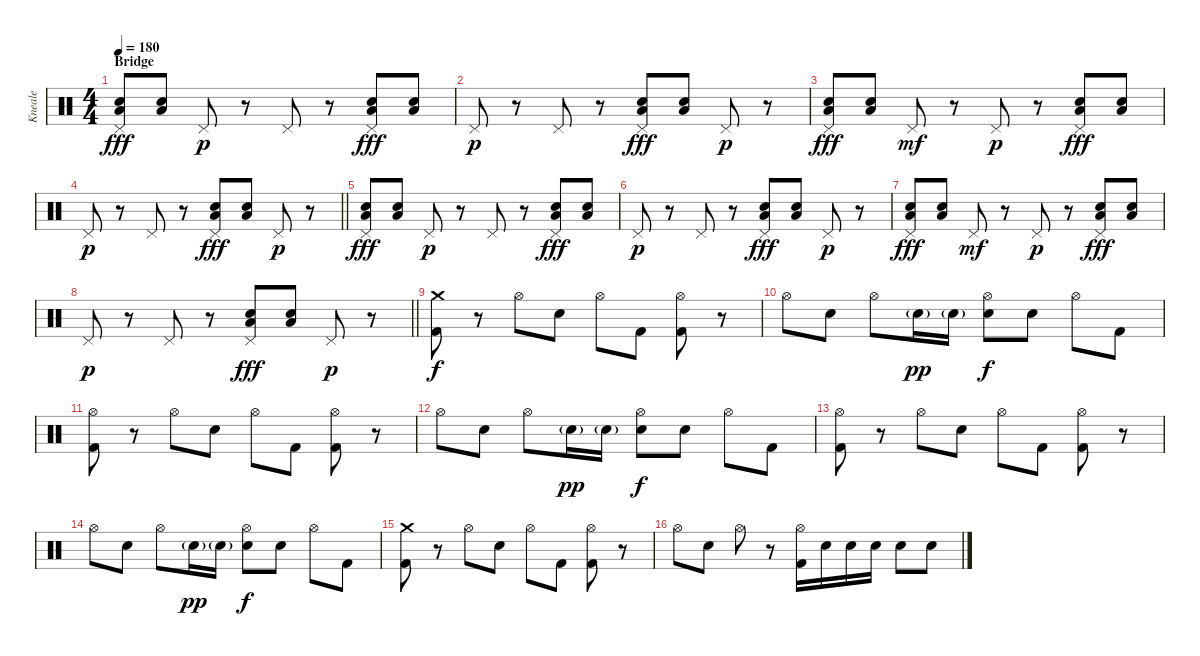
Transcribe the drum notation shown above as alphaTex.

\track ("Kneale" "Kneale") {instrument percussion}
\staff {score}
\articulation defaults
\ts (4 4)
\section ("" "Bridge")
\tempo 180
\clef neutral
\ks c
("Pedal Hi-Hat (hit)" "Low Floor Tom (hit)" "Electric Snare (hit)").8{dy fff} ("Low Floor Tom (hit)" "Electric Snare (hit)").8 "Pedal Hi-Hat (hit)".8{dy p} r.8 "Pedal Hi-Hat (hit)".8 r.8 ("Pedal Hi-Hat (hit)" "Low Floor Tom (hit)" "Electric Snare (hit)").8{dy fff} ("Low Floor Tom (hit)" "Electric Snare (hit)").8 |
"Pedal Hi-Hat (hit)".8{dy p} r.8 "Pedal Hi-Hat (hit)".8 r.8 ("Pedal Hi-Hat (hit)" "Low Floor Tom (hit)" "Electric Snare (hit)").8{dy fff} ("Low Floor Tom (hit)" "Electric Snare (hit)").8 "Pedal Hi-Hat (hit)".8{dy p} r.8 |
("Pedal Hi-Hat (hit)" "Low Floor Tom (hit)" "Electric Snare (hit)").8{dy fff} ("Low Floor Tom (hit)" "Electric Snare (hit)").8 "Pedal Hi-Hat (hit)".8{dy mf} r.8 "Pedal Hi-Hat (hit)".8{dy p} r.8 ("Pedal Hi-Hat (hit)" "Low Floor Tom (hit)" "Electric Snare (hit)").8{dy fff} ("Low Floor Tom (hit)" "Electric Snare (hit)").8 |
\barLineRight lightlight "Pedal Hi-Hat (hit)".8{dy p}
r.8 "Pedal Hi-Hat (hit)".8 r.8 ("Pedal Hi-Hat (hit)" "Low Floor Tom (hit)" "Electric Snare (hit)").8{dy fff} ("Low Floor Tom (hit)" "Electric Snare (hit)").8 "Pedal Hi-Hat (hit)".8{dy p} r.8 |
("Pedal Hi-Hat (hit)" "Low Floor Tom (hit)" "Electric Snare (hit)").8{dy fff} ("Low Floor Tom (hit)" "Electric Snare (hit)").8 "Pedal Hi-Hat (hit)".8{dy p} r.8 "Pedal Hi-Hat (hit)".8 r.8 ("Pedal Hi-Hat (hit)" "Low Floor Tom (hit)" "Electric Snare (hit)").8{dy fff} ("Low Floor Tom (hit)" "Electric Snare (hit)").8 |
"Pedal Hi-Hat (hit)".8{dy p} r.8 "Pedal Hi-Hat (hit)".8 r.8 ("Pedal Hi-Hat (hit)" "Low Floor Tom (hit)" "Electric Snare (hit)").8{dy fff} ("Low Floor Tom (hit)" "Electric Snare (hit)").8 "Pedal Hi-Hat (hit)".8{dy p} r.8 |
("Pedal Hi-Hat (hit)" "Low Floor Tom (hit)" "Electric Snare (hit)").8{dy fff} ("Low Floor Tom (hit)" "Electric Snare (hit)").8 "Pedal Hi-Hat (hit)".8{dy mf} r.8 "Pedal Hi-Hat (hit)".8{dy p} r.8 ("Pedal Hi-Hat (hit)" "Low Floor Tom (hit)" "Electric Snare (hit)").8{dy fff} ("Low Floor Tom (hit)" "Electric Snare (hit)").8 |
\barLineRight lightlight "Pedal Hi-Hat (hit)".8{dy p}
r.8 "Pedal Hi-Hat (hit)".8 r.8 ("Pedal Hi-Hat (hit)" "Low Floor Tom (hit)" "Electric Snare (hit)").8{dy fff} ("Low Floor Tom (hit)" "Electric Snare (hit)").8 "Pedal Hi-Hat (hit)".8{dy p} r.8 |
\section ("" "")
("Crash medium (hit)" "Kick (hit) 2").8{dy f} r.8 "Hi-Hat (open)".8 "Electric Snare (hit)".8 "Hi-Hat (open)".8 "Kick (hit) 2".8 ("Hi-Hat (open)" "Kick (hit) 2").8 r.8 |
"Hi-Hat (open)".8 "Electric Snare (hit)".8 "Hi-Hat (open)".8 "Electric Snare (hit)"{g}.16{dy pp} "Electric Snare (hit)"{g}.16 ("Hi-Hat (open)" "Electric Snare (hit)").8{dy f} "Electric Snare (hit)".8 "Hi-Hat (open)".8 "Kick (hit) 2".8 |
("Hi-Hat (open)" "Kick (hit) 2").8 r.8 "Hi-Hat (open)".8 "Electric Snare (hit)".8 "Hi-Hat (open)".8 "Kick (hit) 2".8 ("Hi-Hat (open)" "Kick (hit) 2").8 r.8 |
"Hi-Hat (open)".8 "Electric Snare (hit)".8 "Hi-Hat (open)".8 "Electric Snare (hit)"{g}.16{dy pp} "Electric Snare (hit)"{g}.16 ("Hi-Hat (open)" "Electric Snare (hit)").8{dy f} "Electric Snare (hit)".8 "Hi-Hat (open)".8 "Kick (hit) 2".8 |
("Hi-Hat (open)" "Kick (hit) 2").8 r.8 "Hi-Hat (open)".8 "Electric Snare (hit)".8 "Hi-Hat (open)".8 "Kick (hit) 2".8 ("Hi-Hat (open)" "Kick (hit) 2").8 r.8 |
"Hi-Hat (open)".8 "Electric Snare (hit)".8 "Hi-Hat (open)".8 "Electric Snare (hit)"{g}.16{dy pp} "Electric Snare (hit)"{g}.16 ("Hi-Hat (open)" "Electric Snare (hit)").8{dy f} "Electric Snare (hit)".8 "Hi-Hat (open)".8 "Kick (hit) 2".8 |
("Crash medium (hit)" "Kick (hit) 2").8 r.8 "Hi-Hat (open)".8 "Electric Snare (hit)".8 "Hi-Hat (open)".8 "Kick (hit) 2".8 ("Hi-Hat (open)" "Kick (hit) 2").8 r.8 |
"Hi-Hat (open)".8 "Electric Snare (hit)".8 "Hi-Hat (open)".8 r.8 ("Hi-Hat (open)" "Kick (hit) 2").16 "Electric Snare (hit)".16 "Electric Snare (hit)".16 "Electric Snare (hit)".16 "Electric Snare (hit)".8 "Electric Snare (hit)".8
